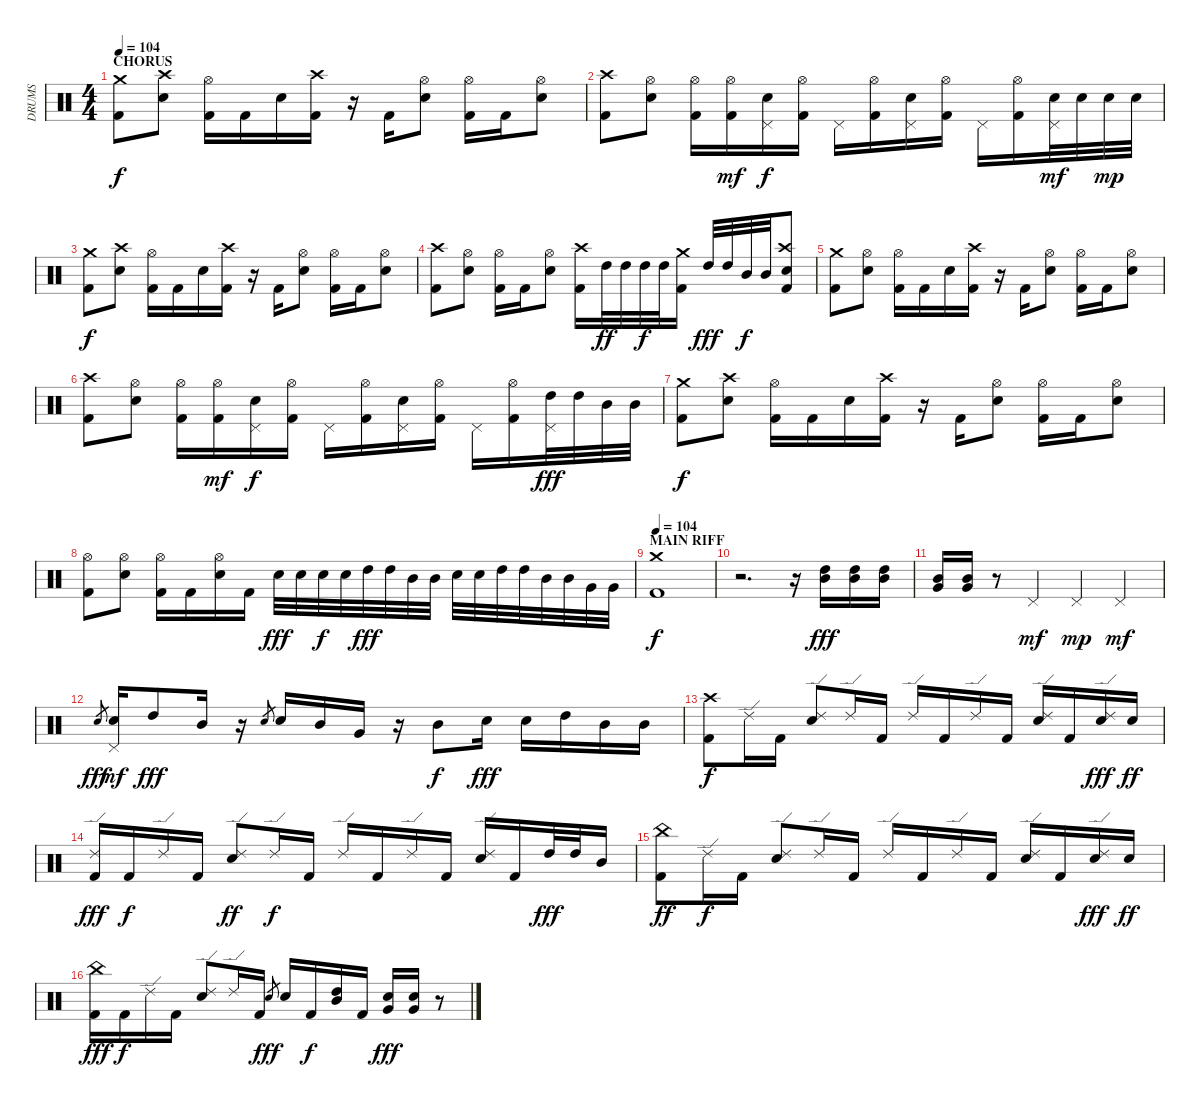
\track ("DRUMS" "DRUMS") {instrument percussion}
\staff {score}
\articulation defaults
\ts (4 4)
\section ("" "CHORUS")
\tempo 104
\clef neutral
\ks c
("Crash medium (hit)" "Kick (hit) 2").8{dy f} ("Crash high (hit)" "Electric Snare (hit)").8 ("Hi-Hat (open)" "Kick (hit) 2").16 "Kick (hit) 2".16 "Electric Snare (hit)".16 ("Crash high (hit)" "Kick (hit) 2").16 r.16 "Kick (hit) 2".16 ("Hi-Hat (open)" "Electric Snare (hit)").8 ("Hi-Hat (open)" "Kick (hit) 2").16 "Kick (hit) 2".16 ("Hi-Hat (open)" "Electric Snare (hit)").8 |
("Crash high (hit)" "Kick (hit) 2").8 ("Hi-Hat (open)" "Electric Snare (hit)").8 ("Hi-Hat (open)" "Kick (hit) 2").16 ("Hi-Hat (open)" "Kick (hit) 2").16{dy mf} ("Electric Snare (hit)" "Pedal Hi-Hat (hit)").16{dy f} ("Hi-Hat (open)" "Kick (hit) 2").16 "Pedal Hi-Hat (hit)".16 ("Hi-Hat (open)" "Kick (hit) 2").16 ("Electric Snare (hit)" "Pedal Hi-Hat (hit)").16 ("Hi-Hat (open)" "Kick (hit) 2").16 "Pedal Hi-Hat (hit)".16 ("Hi-Hat (open)" "Kick (hit) 2").16 ("Electric Snare (hit)" "Pedal Hi-Hat (hit)").32{dy mf} "Electric Snare (hit)".32 "Electric Snare (hit)".32{dy mp} "Electric Snare (hit)".32 |
("Crash medium (hit)" "Kick (hit) 2").8{dy f} ("Crash high (hit)" "Electric Snare (hit)").8 ("Hi-Hat (open)" "Kick (hit) 2").16 "Kick (hit) 2".16 "Electric Snare (hit)".16 ("Crash high (hit)" "Kick (hit) 2").16 r.16 "Kick (hit) 2".16 ("Hi-Hat (open)" "Electric Snare (hit)").8 ("Hi-Hat (open)" "Kick (hit) 2").16 "Kick (hit) 2".16 ("Hi-Hat (open)" "Electric Snare (hit)").8 |
("Crash high (hit)" "Kick (hit) 2").8 ("Hi-Hat (open)" "Electric Snare (hit)").8 ("Hi-Hat (open)" "Kick (hit) 2").16 "Kick (hit) 2".16 ("Hi-Hat (open)" "Electric Snare (hit)").8 ("Crash high (hit)" "Kick (hit) 2").16 "High Tom (hit)".32{dy ff} "High Tom (hit)".32 "High Tom (hit)".32{dy f} "High Tom (hit)".32 ("Crash medium (hit)" "Kick (hit) 2").16 "High Tom (hit)".32{dy fff} "High Tom (hit)".32 "Mid Tom (hit)".32{dy f} "Mid Tom (hit)".32 ("Crash high (hit)" "Electric Snare (hit)" "Kick (hit) 2").8 |
("Crash medium (hit)" "Kick (hit) 2").8 ("Hi-Hat (open)" "Electric Snare (hit)").8 ("Hi-Hat (open)" "Kick (hit) 2").16 "Kick (hit) 2".16 "Electric Snare (hit)".16 ("Crash high (hit)" "Kick (hit) 2").16 r.16 "Kick (hit) 2".16 ("Hi-Hat (open)" "Electric Snare (hit)").8 ("Hi-Hat (open)" "Kick (hit) 2").16 "Kick (hit) 2".16 ("Hi-Hat (open)" "Electric Snare (hit)").8 |
("Crash high (hit)" "Kick (hit) 2").8 ("Hi-Hat (open)" "Electric Snare (hit)").8 ("Hi-Hat (open)" "Kick (hit) 2").16 ("Hi-Hat (open)" "Kick (hit) 2").16{dy mf} ("Electric Snare (hit)" "Pedal Hi-Hat (hit)").16{dy f} ("Hi-Hat (open)" "Kick (hit) 2").16 "Pedal Hi-Hat (hit)".16 ("Hi-Hat (open)" "Kick (hit) 2").16 ("Electric Snare (hit)" "Pedal Hi-Hat (hit)").16 ("Hi-Hat (open)" "Kick (hit) 2").16 "Pedal Hi-Hat (hit)".16 ("Hi-Hat (open)" "Kick (hit) 2").16 ("High Tom (hit)" "Pedal Hi-Hat (hit)").32{dy fff} "High Tom (hit)".32 "Mid Tom (hit)".32 "Mid Tom (hit)".32 |
("Crash medium (hit)" "Kick (hit) 2").8{dy f} ("Crash high (hit)" "Electric Snare (hit)").8 ("Hi-Hat (open)" "Kick (hit) 2").16 "Kick (hit) 2".16 "Electric Snare (hit)".16 ("Crash high (hit)" "Kick (hit) 2").16 r.16 "Kick (hit) 2".16 ("Hi-Hat (open)" "Electric Snare (hit)").8 ("Hi-Hat (open)" "Kick (hit) 2").16 "Kick (hit) 2".16 ("Hi-Hat (open)" "Electric Snare (hit)").8 |
("Hi-Hat (open)" "Kick (hit) 2").8 ("Hi-Hat (open)" "Electric Snare (hit)").8 ("Hi-Hat (open)" "Kick (hit) 2").16 "Kick (hit) 2".16 ("Hi-Hat (open)" "Electric Snare (hit)").16 "Kick (hit) 2".16 "Electric Snare (hit)".32{dy fff} "Electric Snare (hit)".32 "Electric Snare (hit)".32{dy f} "Electric Snare (hit)".32 "High Tom (hit)".32{dy fff} "High Tom (hit)".32 "Mid Tom (hit)".32 "Mid Tom (hit)".32 "Electric Snare (hit)".32 "Electric Snare (hit)".32 "High Tom (hit)".32 "High Tom (hit)".32 "Mid Tom (hit)".32 "Mid Tom (hit)".32 "Very Low Tom (hit)".32 "Very Low Tom (hit)".32 |
\section ("" "MAIN RIFF")
\tempo 104
("Crash medium (hit)" "Kick (hit) 2").1{dy f} |
r.2{d} r.16 ("High Tom (hit)" "Mid Tom (hit)").16{dy fff} ("High Tom (hit)" "Mid Tom (hit)").16 ("High Tom (hit)" "Mid Tom (hit)").16 |
("Mid Tom (hit)" "Very Low Tom (hit)").16 ("Mid Tom (hit)" "Very Low Tom (hit)").16 r.8 "Pedal Hi-Hat (hit)".4{dy mf} "Pedal Hi-Hat (hit)".4{dy mp} "Pedal Hi-Hat (hit)".4{dy mf} |
"Electric Snare (hit)"{sl}.8{gr dy fff} ("Electric Snare (hit)" "Pedal Hi-Hat (hit)").16{dy mf} "High Tom (hit)".8{dy fff} "Mid Tom (hit)".16 r.16 "Electric Snare (hit)"{h}.8{gr} "Electric Snare (hit)".16 "Mid Tom (hit)".16 "Very Low Tom (hit)".16 r.16 "Mid Tom (hit)".8{dy f} "Electric Snare (hit)".16{dy fff} "Electric Snare (hit)".16 "High Tom (hit)".16 "Mid Tom (hit)".16 "Mid Tom (hit)".16 |
("Crash high (hit)" "Kick (hit) 2").8{dy f} "Ride (edge) 2".16 "Kick (hit) 2".16 ("Ride (edge) 2" "Electric Snare (hit)").8 "Ride (edge) 2".16 "Kick (hit) 2".16 "Ride (edge) 2".16 "Kick (hit) 2".16 "Ride (edge) 2".16 "Kick (hit) 2".16 ("Ride (edge) 2" "Electric Snare (hit)").16 "Kick (hit) 2".16 ("Ride (edge) 2" "Electric Snare (hit)").16{dy fff} "Electric Snare (hit)".16{dy ff} |
("Ride (edge) 2" "Kick (hit) 2").16{dy fff} "Kick (hit) 2".16{dy f} "Ride (edge) 2".16 "Kick (hit) 2".16 ("Ride (edge) 2" "Electric Snare (hit)").8{dy ff} "Ride (edge) 2".16{dy f} "Kick (hit) 2".16 "Ride (edge) 2".16 "Kick (hit) 2".16 "Ride (edge) 2".16 "Kick (hit) 2".16 ("Ride (edge) 2" "Electric Snare (hit)").16 "Kick (hit) 2".16 "High Tom (hit)".32{dy fff} "High Tom (hit)".32 "Mid Tom (hit)".16 |
("China (hit)" "Kick (hit) 2").8{dy ff} "Ride (edge) 2".16{dy f} "Kick (hit) 2".16 ("Ride (edge) 2" "Electric Snare (hit)").8 "Ride (edge) 2".16 "Kick (hit) 2".16 "Ride (edge) 2".16 "Kick (hit) 2".16 "Ride (edge) 2".16 "Kick (hit) 2".16 ("Ride (edge) 2" "Electric Snare (hit)").16 "Kick (hit) 2".16 ("Ride (edge) 2" "Electric Snare (hit)").16{dy fff} "Electric Snare (hit)".16{dy ff} |
("China (hit)" "Kick (hit) 2").16{dy fff} "Kick (hit) 2".16{dy f} "Ride (edge) 2".16 "Kick (hit) 2".16 ("Ride (edge) 2" "Electric Snare (hit)").8 "Ride (edge) 2".16 "Kick (hit) 2".16 "Electric Snare (hit)"{h}.8{gr dy fff} "Electric Snare (hit)".16 "Kick (hit) 2".16{dy f} ("High Tom (hit)" "Mid Tom (hit)").16 "Kick (hit) 2".16 ("Electric Snare (hit)" "Very Low Tom (hit)").16{dy fff} ("Electric Snare (hit)" "Very Low Tom (hit)").16 r.8
